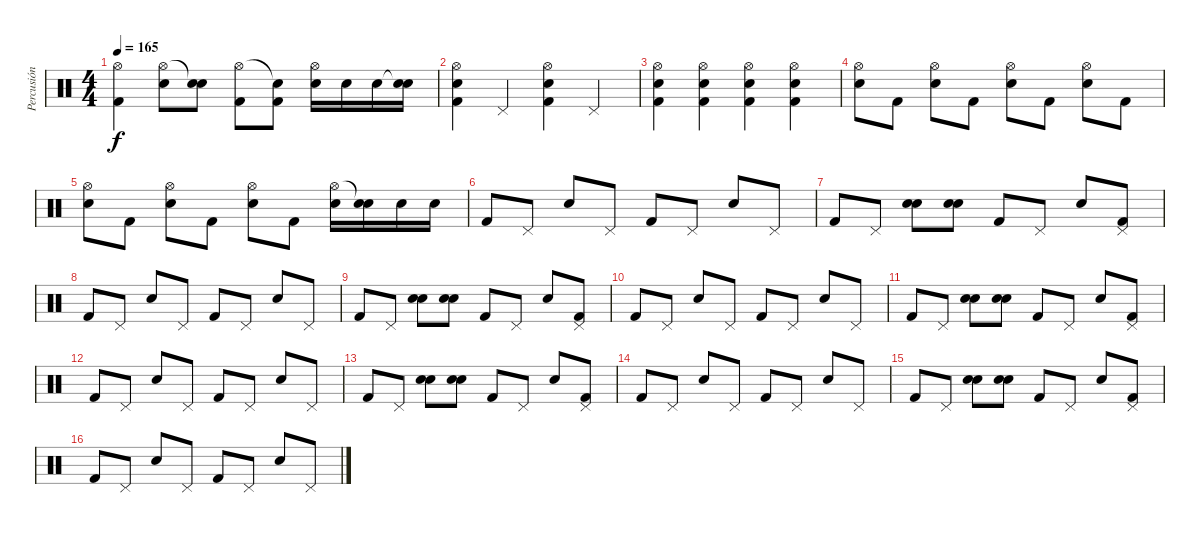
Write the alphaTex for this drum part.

\track ("Percusión" "Percusión") {instrument percussion}
\staff {score}
\articulation defaults
\ts (4 4)
\tempo 165
\clef neutral
\ks c
("Hi-Hat (open)" "Kick (hit) 2").4{dy f} ("Hi-Hat (open)" "Snare (hit) 2").8 ("Snare (hit)"{t} "Snare (hit) 2").8 ("Hi-Hat (open)" "Kick (hit) 2").8 ("Snare (hit)"{t} "Kick (hit) 2").8 ("Hi-Hat (open)" "Snare (hit) 2").16 "Snare (hit) 2".16 "Snare (hit) 2".16 ("Snare (hit)"{t} "Snare (hit) 2").16 |
("Hi-Hat (open)" "Snare (hit) 2" "Kick (hit) 2").4 "Pedal Hi-Hat (hit)".4 ("Hi-Hat (open)" "Snare (hit) 2" "Kick (hit) 2").4 "Pedal Hi-Hat (hit)".4 |
("Hi-Hat (open)" "Snare (hit) 2" "Kick (hit) 2").4 ("Hi-Hat (open)" "Snare (hit) 2" "Kick (hit) 2").4 ("Hi-Hat (open)" "Snare (hit) 2" "Kick (hit) 2").4 ("Hi-Hat (open)" "Snare (hit) 2" "Kick (hit) 2").4 |
("Hi-Hat (open)" "Snare (hit) 2").8 "Kick (hit) 2".8 ("Hi-Hat (open)" "Snare (hit) 2").8 "Kick (hit) 2".8 ("Hi-Hat (open)" "Snare (hit) 2").8 "Kick (hit) 2".8 ("Hi-Hat (open)" "Snare (hit) 2").8 "Kick (hit) 2".8 |
("Hi-Hat (open)" "Snare (hit) 2").8 "Kick (hit) 2".8 ("Hi-Hat (open)" "Snare (hit) 2").8 "Kick (hit) 2".8 ("Hi-Hat (open)" "Snare (hit) 2").8 "Kick (hit) 2".8 ("Hi-Hat (open)" "Snare (hit) 2").16 ("Snare (hit)"{t} "Snare (hit) 2").16 "Snare (hit) 2".16 "Snare (hit) 2".16 |
"Kick (hit) 2".8 "Pedal Hi-Hat (hit)".8 "Snare (hit) 2".8 "Pedal Hi-Hat (hit)".8 "Kick (hit) 2".8 "Pedal Hi-Hat (hit)".8 "Snare (hit) 2".8 "Pedal Hi-Hat (hit)".8 |
"Kick (hit) 2".8 "Pedal Hi-Hat (hit)".8 ("Snare (hit) 2" "Snare (hit) 2").8 ("Snare (hit) 2" "Snare (hit) 2").8 "Kick (hit) 2".8 "Pedal Hi-Hat (hit)".8 "Snare (hit) 2".8 ("Kick (hit) 2" "Pedal Hi-Hat (hit)").8 |
"Kick (hit) 2".8 "Pedal Hi-Hat (hit)".8 "Snare (hit) 2".8 "Pedal Hi-Hat (hit)".8 "Kick (hit) 2".8 "Pedal Hi-Hat (hit)".8 "Snare (hit) 2".8 "Pedal Hi-Hat (hit)".8 |
"Kick (hit) 2".8 "Pedal Hi-Hat (hit)".8 ("Snare (hit) 2" "Snare (hit) 2").8 ("Snare (hit) 2" "Snare (hit) 2").8 "Kick (hit) 2".8 "Pedal Hi-Hat (hit)".8 "Snare (hit) 2".8 ("Kick (hit) 2" "Pedal Hi-Hat (hit)").8 |
"Kick (hit) 2".8 "Pedal Hi-Hat (hit)".8 "Snare (hit) 2".8 "Pedal Hi-Hat (hit)".8 "Kick (hit) 2".8 "Pedal Hi-Hat (hit)".8 "Snare (hit) 2".8 "Pedal Hi-Hat (hit)".8 |
"Kick (hit) 2".8 "Pedal Hi-Hat (hit)".8 ("Snare (hit) 2" "Snare (hit) 2").8 ("Snare (hit) 2" "Snare (hit) 2").8 "Kick (hit) 2".8 "Pedal Hi-Hat (hit)".8 "Snare (hit) 2".8 ("Kick (hit) 2" "Pedal Hi-Hat (hit)").8 |
"Kick (hit) 2".8 "Pedal Hi-Hat (hit)".8 "Snare (hit) 2".8 "Pedal Hi-Hat (hit)".8 "Kick (hit) 2".8 "Pedal Hi-Hat (hit)".8 "Snare (hit) 2".8 "Pedal Hi-Hat (hit)".8 |
"Kick (hit) 2".8 "Pedal Hi-Hat (hit)".8 ("Snare (hit) 2" "Snare (hit) 2").8 ("Snare (hit) 2" "Snare (hit) 2").8 "Kick (hit) 2".8 "Pedal Hi-Hat (hit)".8 "Snare (hit) 2".8 ("Kick (hit) 2" "Pedal Hi-Hat (hit)").8 |
"Kick (hit) 2".8 "Pedal Hi-Hat (hit)".8 "Snare (hit) 2".8 "Pedal Hi-Hat (hit)".8 "Kick (hit) 2".8 "Pedal Hi-Hat (hit)".8 "Snare (hit) 2".8 "Pedal Hi-Hat (hit)".8 |
"Kick (hit) 2".8 "Pedal Hi-Hat (hit)".8 ("Snare (hit) 2" "Snare (hit) 2").8 ("Snare (hit) 2" "Snare (hit) 2").8 "Kick (hit) 2".8 "Pedal Hi-Hat (hit)".8 "Snare (hit) 2".8 ("Kick (hit) 2" "Pedal Hi-Hat (hit)").8 |
"Kick (hit) 2".8 "Pedal Hi-Hat (hit)".8 "Snare (hit) 2".8 "Pedal Hi-Hat (hit)".8 "Kick (hit) 2".8 "Pedal Hi-Hat (hit)".8 "Snare (hit) 2".8 "Pedal Hi-Hat (hit)".8
